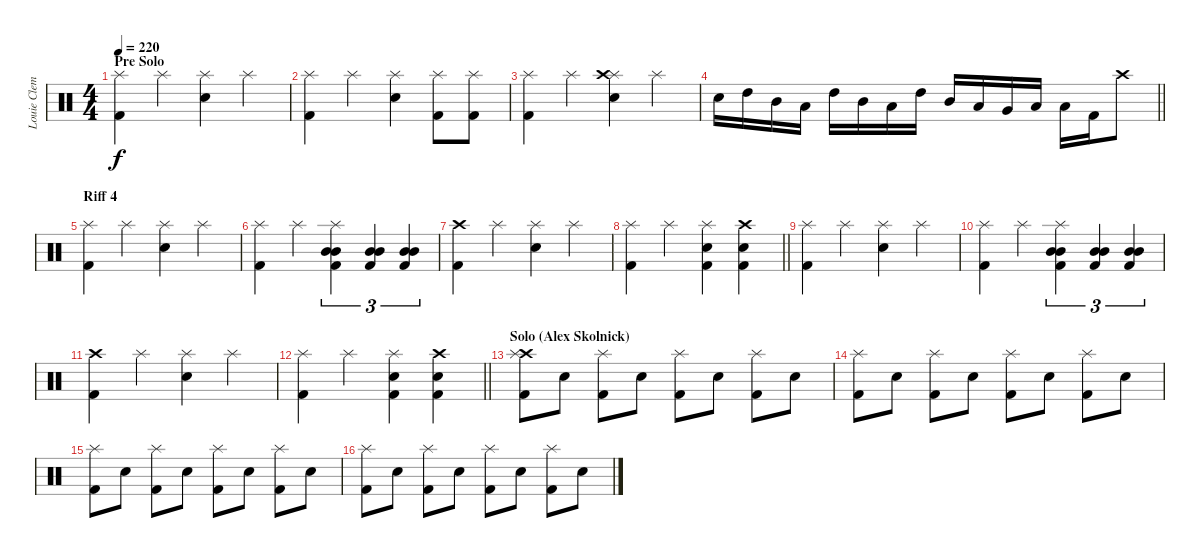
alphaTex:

\track ("Louie Clemente (Drums)" "Louie Clem") {instrument percussion}
\staff {score}
\articulation defaults
\ts (4 4)
\section ("" "Pre Solo")
\tempo 220
\clef neutral
\ks c
("Splash (hit)" "Kick (hit) 2").4{dy f} "Splash (hit)".4 ("Splash (hit)" "Electric Snare (hit)").4 "Splash (hit)".4 |
("Splash (hit)" "Kick (hit) 2").4 "Splash (hit)".4 ("Splash (hit)" "Electric Snare (hit)").4 ("Splash (hit)" "Kick (hit) 2").8 ("Splash (hit)" "Kick (hit) 2").8 |
("Splash (hit)" "Kick (hit) 2").4 "Splash (hit)".4 ("Splash (hit)" "Crash high (hit)" "Electric Snare (hit)").4 "Splash (hit)".4 |
\barLineRight lightlight "Electric Snare (hit)".16 "High Tom (hit)".16 "Mid Tom (hit)".16 "Low Tom (hit)".16 "High Tom (hit)".16 "Mid Tom (hit)".16 "Low Tom (hit)".16 "High Tom (hit)".16 "Mid Tom (hit)".16 "Low Tom (hit)".16 "Very Low Tom (hit)".16 "Low Floor Tom (hit)".16 "Low Floor Tom (hit)".16 "Kick (hit) 2".16 "Crash high (hit)".8
|
\section ("" "Riff 4")
("Splash (hit)" "Kick (hit) 2").4 "Splash (hit)".4 ("Splash (hit)" "Electric Snare (hit)").4 "Splash (hit)".4 |
("Splash (hit)" "Kick (hit) 2").4 "Splash (hit)".4 ("Splash (hit)" "Mid Tom (hit)" "Mid Tom (hit)" "Kick (hit) 2").4{tu (3 2)} ("Mid Tom (hit)" "Mid Tom (hit)" "Kick (hit) 2").4{tu (3 2)} ("Mid Tom (hit)" "Mid Tom (hit)" "Kick (hit) 2").4{tu (3 2)} |
("Crash high (hit)" "Kick (hit) 2").4 "Splash (hit)".4 ("Splash (hit)" "Electric Snare (hit)").4 "Splash (hit)".4 |
\barLineRight lightlight
("Splash (hit)" "Kick (hit) 2").4 "Splash (hit)".4 ("Splash (hit)" "Electric Snare (hit)" "Kick (hit) 2").4 ("Crash high (hit)" "Electric Snare (hit)" "Kick (hit) 2").4 |
("Splash (hit)" "Kick (hit) 2").4 "Splash (hit)".4 ("Splash (hit)" "Electric Snare (hit)").4 "Splash (hit)".4 |
("Splash (hit)" "Kick (hit) 2").4 "Splash (hit)".4 ("Splash (hit)" "Mid Tom (hit)" "Mid Tom (hit)" "Kick (hit) 2").4{tu (3 2)} ("Mid Tom (hit)" "Mid Tom (hit)" "Kick (hit) 2").4{tu (3 2)} ("Mid Tom (hit)" "Mid Tom (hit)" "Kick (hit) 2").4{tu (3 2)} |
("Crash high (hit)" "Kick (hit) 2").4 "Splash (hit)".4 ("Splash (hit)" "Electric Snare (hit)").4 "Splash (hit)".4 |
\barLineRight lightlight
("Splash (hit)" "Kick (hit) 2").4 "Splash (hit)".4 ("Splash (hit)" "Electric Snare (hit)" "Kick (hit) 2").4 ("Crash high (hit)" "Electric Snare (hit)" "Kick (hit) 2").4 |
\section ("" "Solo (Alex Skolnick)")
("Crash high (hit)" "Splash (hit)" "Kick (hit) 2").8 "Electric Snare (hit)".8 ("Splash (hit)" "Kick (hit) 2").8 "Electric Snare (hit)".8 ("Splash (hit)" "Kick (hit) 2").8 "Electric Snare (hit)".8 ("Splash (hit)" "Kick (hit) 2").8 "Electric Snare (hit)".8 |
("Splash (hit)" "Kick (hit) 2").8 "Electric Snare (hit)".8 ("Splash (hit)" "Kick (hit) 2").8 "Electric Snare (hit)".8 ("Splash (hit)" "Kick (hit) 2").8 "Electric Snare (hit)".8 ("Splash (hit)" "Kick (hit) 2").8 "Electric Snare (hit)".8 |
("Splash (hit)" "Kick (hit) 2").8 "Electric Snare (hit)".8 ("Splash (hit)" "Kick (hit) 2").8 "Electric Snare (hit)".8 ("Splash (hit)" "Kick (hit) 2").8 "Electric Snare (hit)".8 ("Splash (hit)" "Kick (hit) 2").8 "Electric Snare (hit)".8 |
("Splash (hit)" "Kick (hit) 2").8 "Electric Snare (hit)".8 ("Splash (hit)" "Kick (hit) 2").8 "Electric Snare (hit)".8 ("Splash (hit)" "Kick (hit) 2").8 "Electric Snare (hit)".8 ("Splash (hit)" "Kick (hit) 2").8 "Electric Snare (hit)".8
